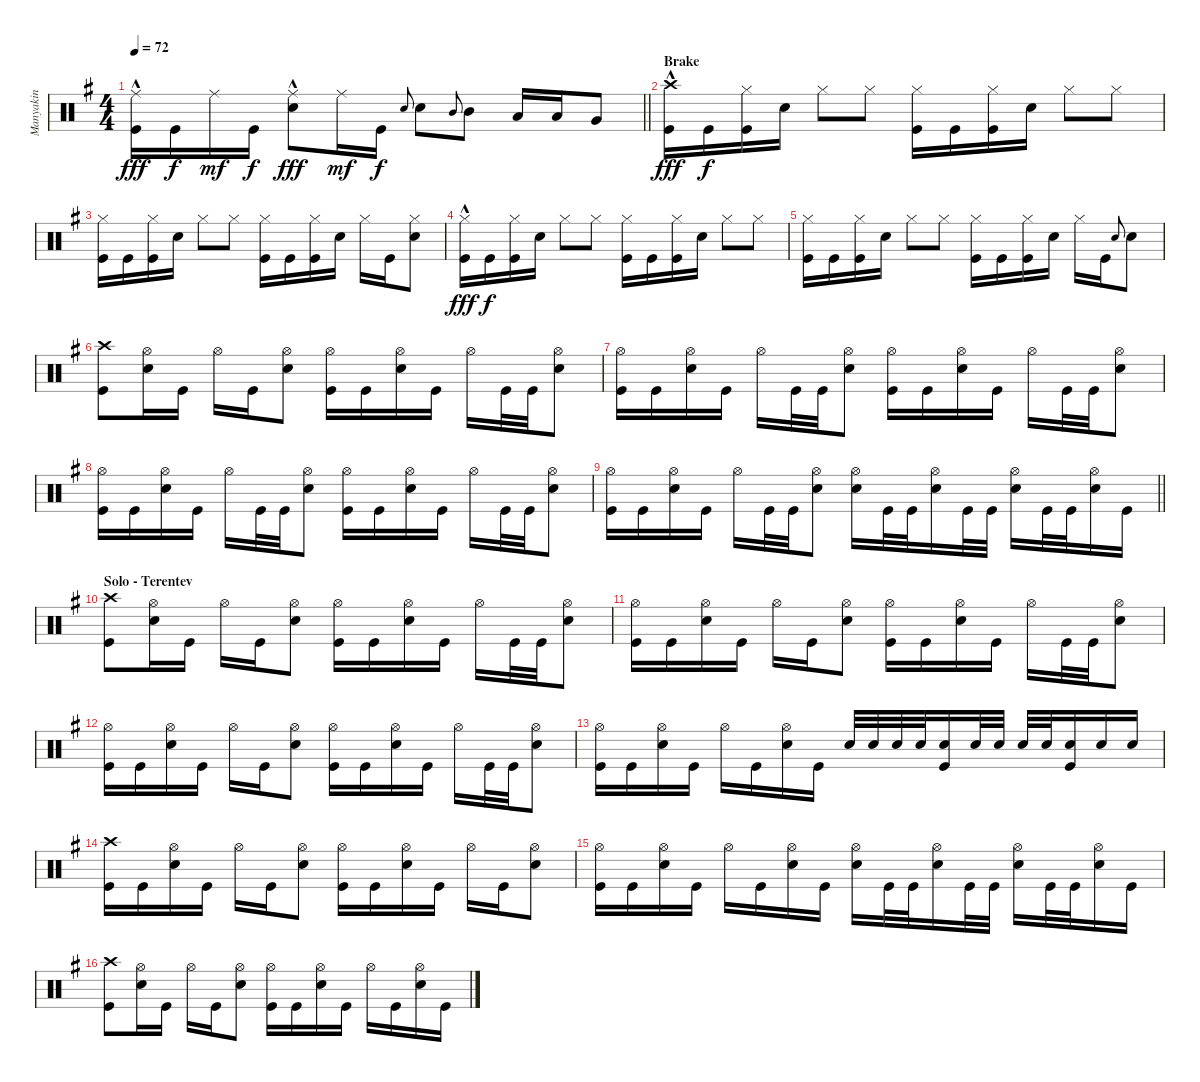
\track ("Manyakin" "Manyakin") {instrument percussion}
\staff {score}
\articulation defaults
\ts (4 4)
\tempo 72
\clef neutral
\barLineRight lightlight
\ks eminor
("Ride (middle)"{hac} "Kick (hit)").16{dy fff beam Down} "Kick (hit)".16{dy f beam Down} "Ride (middle)".16{dy mf beam Down} "Kick (hit)".16{dy f beam Down} ("Ride (middle)"{hac} "Snare (hit) 2").8{dy fff beam Down} "Ride (middle)".16{dy mf beam Down} "Kick (hit)".16{dy f beam Down} "Snare (hit) 2".8{gr onbeat} "Snare (hit) 2".8{beam Down} "Mid Tom (hit)".8{gr onbeat} "Mid Tom (hit)".8{beam Down} "Low Tom (hit)".16{beam Up} "Low Tom (hit)".16{beam Up} "Very Low Tom (hit)".8{beam Up} |
\section ("" "Brake")
("Crash high (hit)"{hac} "Kick (hit)").16{dy fff beam Down} "Kick (hit)".16{dy f beam Down} ("Hi-Hat (closed)" "Kick (hit)").16{beam Down} "Snare (hit) 2".16{beam Down} "Hi-Hat (closed)".8{beam Down} "Hi-Hat (closed)".8{beam Down} ("Hi-Hat (closed)" "Kick (hit)").16{beam Down} "Kick (hit)".16{beam Down} ("Hi-Hat (closed)" "Kick (hit)").16{beam Down} "Snare (hit) 2".16{beam Down} "Hi-Hat (closed)".8{beam Down} "Hi-Hat (closed)".8{beam Down} |
("Hi-Hat (closed)" "Kick (hit)").16{beam Down} "Kick (hit)".16{beam Down} ("Hi-Hat (closed)" "Kick (hit)").16{beam Down} "Snare (hit) 2".16{beam Down} "Hi-Hat (closed)".8{beam Down} "Hi-Hat (closed)".8{beam Down} ("Hi-Hat (closed)" "Kick (hit)").16{beam Down} "Kick (hit)".16{beam Down} ("Hi-Hat (closed)" "Kick (hit)").16{beam Down} "Snare (hit) 2".16{beam Down} "Hi-Hat (closed)".16{beam Down} "Kick (hit)".16{beam Down} ("Hi-Hat (closed)" "Snare (hit) 2").8{beam Down} |
("Hi-Hat (closed)"{hac} "Kick (hit)").16{dy fff beam Down} "Kick (hit)".16{dy f beam Down} ("Hi-Hat (closed)" "Kick (hit)").16{beam Down} "Snare (hit) 2".16{beam Down} "Hi-Hat (closed)".8{beam Down} "Hi-Hat (closed)".8{beam Down} ("Hi-Hat (closed)" "Kick (hit)").16{beam Down} "Kick (hit)".16{beam Down} ("Hi-Hat (closed)" "Kick (hit)").16{beam Down} "Snare (hit) 2".16{beam Down} "Hi-Hat (closed)".8{beam Down} "Hi-Hat (closed)".8{beam Down} |
("Hi-Hat (closed)" "Kick (hit)").16{beam Down} "Kick (hit)".16{beam Down} ("Hi-Hat (closed)" "Kick (hit)").16{beam Down} "Snare (hit) 2".16{beam Down} "Hi-Hat (closed)".8{beam Down} "Hi-Hat (closed)".8{beam Down} ("Hi-Hat (closed)" "Kick (hit)").16{beam Down} "Kick (hit)".16{beam Down} ("Hi-Hat (closed)" "Kick (hit)").16{beam Down} "Snare (hit) 2".16{beam Down} "Hi-Hat (closed)".16{beam Down} "Kick (hit)".16{beam Down} "Snare (hit) 2".8{gr onbeat} "Snare (hit) 2".8{beam Down} |
("Crash high (hit)" "Kick (hit)").8{beam Down} ("Hi-Hat (open)" "Snare (hit) 2").16{beam Down} "Kick (hit)".16{beam Down} "Hi-Hat (open)".16{beam Down} "Kick (hit)".16{beam Down} ("Hi-Hat (open)" "Snare (hit) 2").8{beam Down} ("Hi-Hat (open)" "Kick (hit)").16{beam Down} "Kick (hit)".16{beam Down} ("Hi-Hat (open)" "Snare (hit) 2").16{beam Down} "Kick (hit)".16{beam Down} "Hi-Hat (open)".16{beam Down} "Kick (hit)".32{beam Down} "Kick (hit)".32{beam Down} ("Hi-Hat (open)" "Snare (hit) 2").8{beam Down} |
("Hi-Hat (open)" "Kick (hit)").16{beam Down} "Kick (hit)".16{beam Down} ("Hi-Hat (open)" "Snare (hit) 2").16{beam Down} "Kick (hit)".16{beam Down} "Hi-Hat (open)".16{beam Down} "Kick (hit)".32{beam Down} "Kick (hit)".32{beam Down} ("Hi-Hat (open)" "Snare (hit) 2").8{beam Down} ("Hi-Hat (open)" "Kick (hit)").16{beam Down} "Kick (hit)".16{beam Down} ("Hi-Hat (open)" "Snare (hit) 2").16{beam Down} "Kick (hit)".16{beam Down} "Hi-Hat (open)".16{beam Down} "Kick (hit)".32{beam Down} "Kick (hit)".32{beam Down} ("Hi-Hat (open)" "Snare (hit) 2").8{beam Down} |
("Hi-Hat (open)" "Kick (hit)").16{beam Down} "Kick (hit)".16{beam Down} ("Hi-Hat (open)" "Snare (hit) 2").16{beam Down} "Kick (hit)".16{beam Down} "Hi-Hat (open)".16{beam Down} "Kick (hit)".32{beam Down} "Kick (hit)".32{beam Down} ("Hi-Hat (open)" "Snare (hit) 2").8{beam Down} ("Hi-Hat (open)" "Kick (hit)").16{beam Down} "Kick (hit)".16{beam Down} ("Hi-Hat (open)" "Snare (hit) 2").16{beam Down} "Kick (hit)".16{beam Down} "Hi-Hat (open)".16{beam Down} "Kick (hit)".32{beam Down} "Kick (hit)".32{beam Down} ("Hi-Hat (open)" "Snare (hit) 2").8{beam Down} |
\barLineRight lightlight
("Hi-Hat (open)" "Kick (hit)").16{beam Down} "Kick (hit)".16{beam Down} ("Hi-Hat (open)" "Snare (hit) 2").16{beam Down} "Kick (hit)".16{beam Down} "Hi-Hat (open)".16{beam Down} "Kick (hit)".32{beam Down} "Kick (hit)".32{beam Down} ("Hi-Hat (open)" "Snare (hit) 2").8{beam Down} ("Hi-Hat (open)" "Snare (hit) 2").16{beam Down} "Kick (hit)".32{beam Down} "Kick (hit)".32{beam Down} ("Hi-Hat (open)" "Snare (hit) 2").16{beam Down} "Kick (hit)".32{beam Down} "Kick (hit)".32{beam Down} ("Hi-Hat (open)" "Snare (hit) 2").16{beam Down} "Kick (hit)".32{beam Down} "Kick (hit)".32{beam Down} ("Hi-Hat (open)" "Snare (hit) 2").16{beam Down} "Kick (hit)".16{beam Down} |
\section ("" "Solo - Terentev")
("Crash high (hit)" "Kick (hit)").8{beam Down} ("Hi-Hat (open)" "Snare (hit) 2").16{beam Down} "Kick (hit)".16{beam Down} "Hi-Hat (open)".16{beam Down} "Kick (hit)".16{beam Down} ("Hi-Hat (open)" "Snare (hit) 2").8{beam Down} ("Hi-Hat (open)" "Kick (hit)").16{beam Down} "Kick (hit)".16{beam Down} ("Hi-Hat (open)" "Snare (hit) 2").16{beam Down} "Kick (hit)".16{beam Down} "Hi-Hat (open)".16{beam Down} "Kick (hit)".32{beam Down} "Kick (hit)".32{beam Down} ("Hi-Hat (open)" "Snare (hit) 2").8{beam Down} |
("Hi-Hat (open)" "Kick (hit)").16{beam Down} "Kick (hit)".16{beam Down} ("Hi-Hat (open)" "Snare (hit) 2").16{beam Down} "Kick (hit)".16{beam Down} "Hi-Hat (open)".16{beam Down} "Kick (hit)".16{beam Down} ("Hi-Hat (open)" "Snare (hit) 2").8{beam Down} ("Hi-Hat (open)" "Kick (hit)").16{beam Down} "Kick (hit)".16{beam Down} ("Hi-Hat (open)" "Snare (hit) 2").16{beam Down} "Kick (hit)".16{beam Down} "Hi-Hat (open)".16{beam Down} "Kick (hit)".32{beam Down} "Kick (hit)".32{beam Down} ("Hi-Hat (open)" "Snare (hit) 2").8{beam Down} |
("Hi-Hat (open)" "Kick (hit)").16{beam Down} "Kick (hit)".16{beam Down} ("Hi-Hat (open)" "Snare (hit) 2").16{beam Down} "Kick (hit)".16{beam Down} "Hi-Hat (open)".16{beam Down} "Kick (hit)".16{beam Down} ("Hi-Hat (open)" "Snare (hit) 2").8{beam Down} ("Hi-Hat (open)" "Kick (hit)").16{beam Down} "Kick (hit)".16{beam Down} ("Hi-Hat (open)" "Snare (hit) 2").16{beam Down} "Kick (hit)".16{beam Down} "Hi-Hat (open)".16{beam Down} "Kick (hit)".32{beam Down} "Kick (hit)".32{beam Down} ("Hi-Hat (open)" "Snare (hit) 2").8{beam Down} |
("Hi-Hat (open)" "Kick (hit)").16{beam Down} "Kick (hit)".16{beam Down} ("Hi-Hat (open)" "Snare (hit) 2").16{beam Down} "Kick (hit)".16{beam Down} "Hi-Hat (open)".16{beam Down} "Kick (hit)".16{beam Down} ("Hi-Hat (open)" "Snare (hit) 2").16{beam Down} "Kick (hit)".16{beam Down} "Snare (hit) 2".32{beam Up} "Snare (hit) 2".32{beam Up} "Snare (hit) 2".32{beam Up} "Snare (hit) 2".32{beam Up} ("Snare (hit) 2" "Kick (hit)").16{beam Up} "Snare (hit) 2".32{beam Up} "Snare (hit) 2".32{beam Up} "Snare (hit) 2".32{beam Up} "Snare (hit) 2".32{beam Up} ("Snare (hit) 2" "Kick (hit)").16{beam Up} "Snare (hit) 2".16{beam Up} "Snare (hit) 2".16{beam Up} |
("Crash high (hit)" "Kick (hit)").16{beam Down} "Kick (hit)".16{beam Down} ("Hi-Hat (open)" "Snare (hit) 2").16{beam Down} "Kick (hit)".16{beam Down} "Hi-Hat (open)".16{beam Down} "Kick (hit)".16{beam Down} ("Hi-Hat (open)" "Snare (hit) 2").8{beam Down} ("Hi-Hat (open)" "Kick (hit)").16{beam Down} "Kick (hit)".16{beam Down} ("Hi-Hat (open)" "Snare (hit) 2").16{beam Down} "Kick (hit)".16{beam Down} "Hi-Hat (open)".16{beam Down} "Kick (hit)".16{beam Down} ("Hi-Hat (open)" "Snare (hit) 2").8{beam Down} |
("Hi-Hat (open)" "Kick (hit)").16{beam Down} "Kick (hit)".16{beam Down} ("Hi-Hat (open)" "Snare (hit) 2").16{beam Down} "Kick (hit)".16{beam Down} "Hi-Hat (open)".16{beam Down} "Kick (hit)".16{beam Down} ("Hi-Hat (open)" "Snare (hit) 2").16{beam Down} "Kick (hit)".16{beam Down} ("Hi-Hat (open)" "Snare (hit) 2").16{beam Down} "Kick (hit)".32{beam Down} "Kick (hit)".32{beam Down} ("Hi-Hat (open)" "Snare (hit) 2").16{beam Down} "Kick (hit)".32{beam Down} "Kick (hit)".32{beam Down} ("Hi-Hat (open)" "Snare (hit) 2").16{beam Down} "Kick (hit)".32{beam Down} "Kick (hit)".32{beam Down} ("Hi-Hat (open)" "Snare (hit) 2").16{beam Down} "Kick (hit)".16{beam Down} |
("Crash high (hit)" "Kick (hit)").8{beam Down} ("Hi-Hat (open)" "Snare (hit) 2").16{beam Down} "Kick (hit)".16{beam Down} "Hi-Hat (open)".16{beam Down} "Kick (hit)".16{beam Down} ("Hi-Hat (open)" "Snare (hit) 2").8{beam Down} ("Hi-Hat (open)" "Kick (hit)").16{beam Down} "Kick (hit)".16{beam Down} ("Hi-Hat (open)" "Snare (hit) 2").16{beam Down} "Kick (hit)".16{beam Down} "Hi-Hat (open)".16{beam Down} "Kick (hit)".16{beam Down} ("Hi-Hat (open)" "Snare (hit) 2").16{beam Down} "Kick (hit)".16{beam Down}
